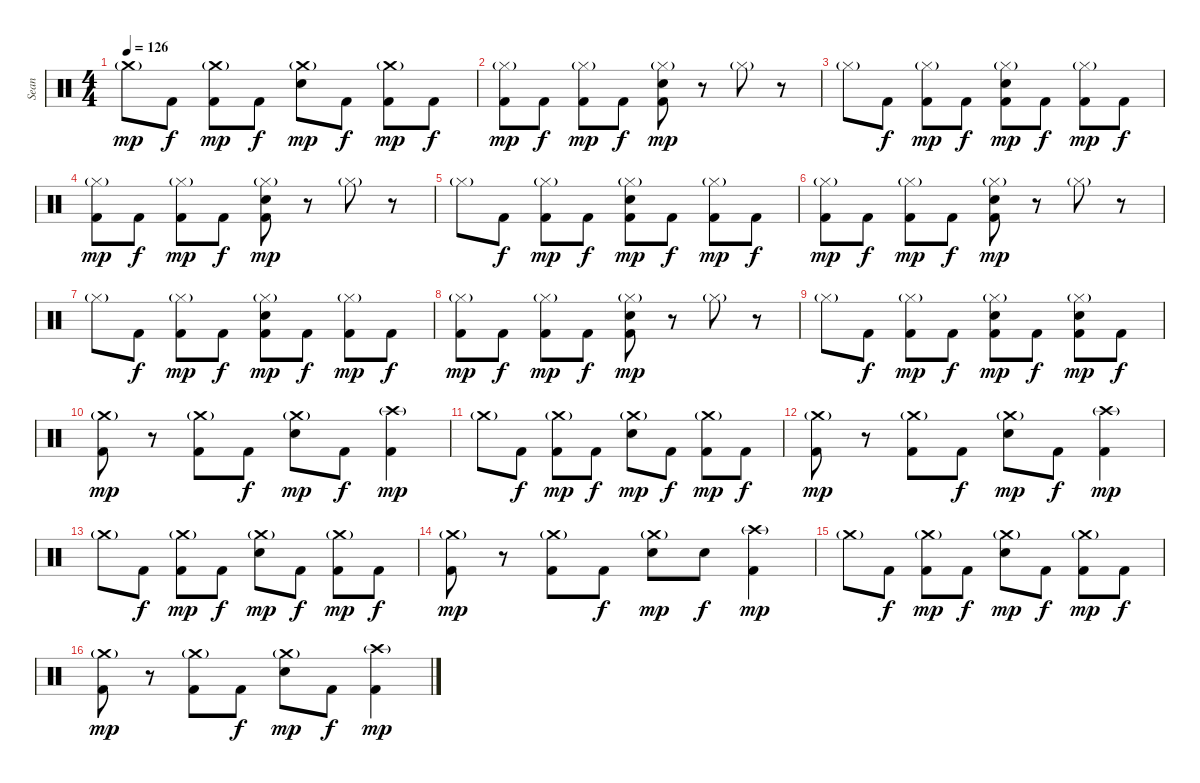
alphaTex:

\track ("Sean" "Sean") {instrument percussion}
\staff {score}
\articulation defaults
\ts (4 4)
\tempo 126
\clef neutral
\ks c "Crash medium (hit)"{g}.8{dy mp} "Kick (hit) 2".8{dy f}
("Crash medium (hit)"{g} "Kick (hit) 2").8{dy mp} "Kick (hit) 2".8{dy f} ("Crash medium (hit)"{g} "Electric Snare (hit)").8{dy mp} "Kick (hit) 2".8{dy f} ("Crash medium (hit)"{g} "Kick (hit) 2").8{dy mp} "Kick (hit) 2".8{dy f} |
("Hi-Hat (closed)"{g} "Kick (hit) 2").8{dy mp} "Kick (hit) 2".8{dy f} ("Hi-Hat (closed)"{g} "Kick (hit) 2").8{dy mp} "Kick (hit) 2".8{dy f} ("Hi-Hat (closed)"{g} "Electric Snare (hit)" "Kick (hit) 2").8{dy mp} r.8 "Hi-Hat (closed)"{g}.8 r.8 |
"Hi-Hat (closed)"{g}.8 "Kick (hit) 2".8{dy f} ("Hi-Hat (closed)"{g} "Kick (hit) 2").8{dy mp} "Kick (hit) 2".8{dy f} ("Hi-Hat (closed)"{g} "Electric Snare (hit)" "Kick (hit) 2").8{dy mp} "Kick (hit) 2".8{dy f} ("Hi-Hat (closed)"{g} "Kick (hit) 2").8{dy mp} "Kick (hit) 2".8{dy f} |
("Hi-Hat (closed)"{g} "Kick (hit) 2").8{dy mp} "Kick (hit) 2".8{dy f} ("Hi-Hat (closed)"{g} "Kick (hit) 2").8{dy mp} "Kick (hit) 2".8{dy f} ("Hi-Hat (closed)"{g} "Electric Snare (hit)" "Kick (hit) 2").8{dy mp} r.8 "Hi-Hat (closed)"{g}.8 r.8 |
"Hi-Hat (closed)"{g}.8 "Kick (hit) 2".8{dy f} ("Hi-Hat (closed)"{g} "Kick (hit) 2").8{dy mp} "Kick (hit) 2".8{dy f} ("Hi-Hat (closed)"{g} "Electric Snare (hit)" "Kick (hit) 2").8{dy mp} "Kick (hit) 2".8{dy f} ("Hi-Hat (closed)"{g} "Kick (hit) 2").8{dy mp} "Kick (hit) 2".8{dy f} |
("Hi-Hat (closed)"{g} "Kick (hit) 2").8{dy mp} "Kick (hit) 2".8{dy f} ("Hi-Hat (closed)"{g} "Kick (hit) 2").8{dy mp} "Kick (hit) 2".8{dy f} ("Hi-Hat (closed)"{g} "Electric Snare (hit)" "Kick (hit) 2").8{dy mp} r.8 "Hi-Hat (closed)"{g}.8 r.8 |
"Hi-Hat (closed)"{g}.8 "Kick (hit) 2".8{dy f} ("Hi-Hat (closed)"{g} "Kick (hit) 2").8{dy mp} "Kick (hit) 2".8{dy f} ("Hi-Hat (closed)"{g} "Electric Snare (hit)" "Kick (hit) 2").8{dy mp} "Kick (hit) 2".8{dy f} ("Hi-Hat (closed)"{g} "Kick (hit) 2").8{dy mp} "Kick (hit) 2".8{dy f} |
("Hi-Hat (closed)"{g} "Kick (hit) 2").8{dy mp} "Kick (hit) 2".8{dy f} ("Hi-Hat (closed)"{g} "Kick (hit) 2").8{dy mp} "Kick (hit) 2".8{dy f} ("Hi-Hat (closed)"{g} "Electric Snare (hit)" "Kick (hit) 2").8{dy mp} r.8 "Hi-Hat (closed)"{g}.8 r.8 |
"Hi-Hat (closed)"{g}.8 "Kick (hit) 2".8{dy f} ("Hi-Hat (closed)"{g} "Kick (hit) 2").8{dy mp} "Kick (hit) 2".8{dy f} ("Hi-Hat (closed)"{g} "Electric Snare (hit)" "Kick (hit) 2").8{dy mp} "Kick (hit) 2".8{dy f} ("Hi-Hat (closed)"{g} "Electric Snare (hit)" "Kick (hit) 2").8{dy mp} "Kick (hit) 2".8{dy f} |
("Crash medium (hit)"{g} "Kick (hit) 2").8{dy mp} r.8 ("Crash medium (hit)"{g} "Kick (hit) 2").8 "Kick (hit) 2".8{dy f} ("Crash medium (hit)"{g} "Electric Snare (hit)").8{dy mp} "Kick (hit) 2".8{dy f} ("Crash high (hit)"{g} "Kick (hit) 2").4{dy mp} |
"Crash medium (hit)"{g}.8 "Kick (hit) 2".8{dy f} ("Crash medium (hit)"{g} "Kick (hit) 2").8{dy mp} "Kick (hit) 2".8{dy f} ("Crash medium (hit)"{g} "Electric Snare (hit)").8{dy mp} "Kick (hit) 2".8{dy f} ("Crash medium (hit)"{g} "Kick (hit) 2").8{dy mp} "Kick (hit) 2".8{dy f} |
("Crash medium (hit)"{g} "Kick (hit) 2").8{dy mp} r.8 ("Crash medium (hit)"{g} "Kick (hit) 2").8 "Kick (hit) 2".8{dy f} ("Crash medium (hit)"{g} "Electric Snare (hit)").8{dy mp} "Kick (hit) 2".8{dy f} ("Crash high (hit)"{g} "Kick (hit) 2").4{dy mp} |
"Crash medium (hit)"{g}.8 "Kick (hit) 2".8{dy f} ("Crash medium (hit)"{g} "Kick (hit) 2").8{dy mp} "Kick (hit) 2".8{dy f} ("Crash medium (hit)"{g} "Electric Snare (hit)").8{dy mp} "Kick (hit) 2".8{dy f} ("Crash medium (hit)"{g} "Kick (hit) 2").8{dy mp} "Kick (hit) 2".8{dy f} |
("Crash medium (hit)"{g} "Kick (hit) 2").8{dy mp} r.8 ("Crash medium (hit)"{g} "Kick (hit) 2").8 "Kick (hit) 2".8{dy f} ("Crash medium (hit)"{g} "Electric Snare (hit)").8{dy mp} "Electric Snare (hit)".8{dy f} ("Crash high (hit)"{g} "Kick (hit) 2").4{dy mp} |
"Crash medium (hit)"{g}.8 "Kick (hit) 2".8{dy f} ("Crash medium (hit)"{g} "Kick (hit) 2").8{dy mp} "Kick (hit) 2".8{dy f} ("Crash medium (hit)"{g} "Electric Snare (hit)").8{dy mp} "Kick (hit) 2".8{dy f} ("Crash medium (hit)"{g} "Kick (hit) 2").8{dy mp} "Kick (hit) 2".8{dy f} |
("Crash medium (hit)"{g} "Kick (hit) 2").8{dy mp} r.8 ("Crash medium (hit)"{g} "Kick (hit) 2").8 "Kick (hit) 2".8{dy f} ("Crash medium (hit)"{g} "Electric Snare (hit)").8{dy mp} "Kick (hit) 2".8{dy f} ("Crash high (hit)"{g} "Kick (hit) 2").4{dy mp}
